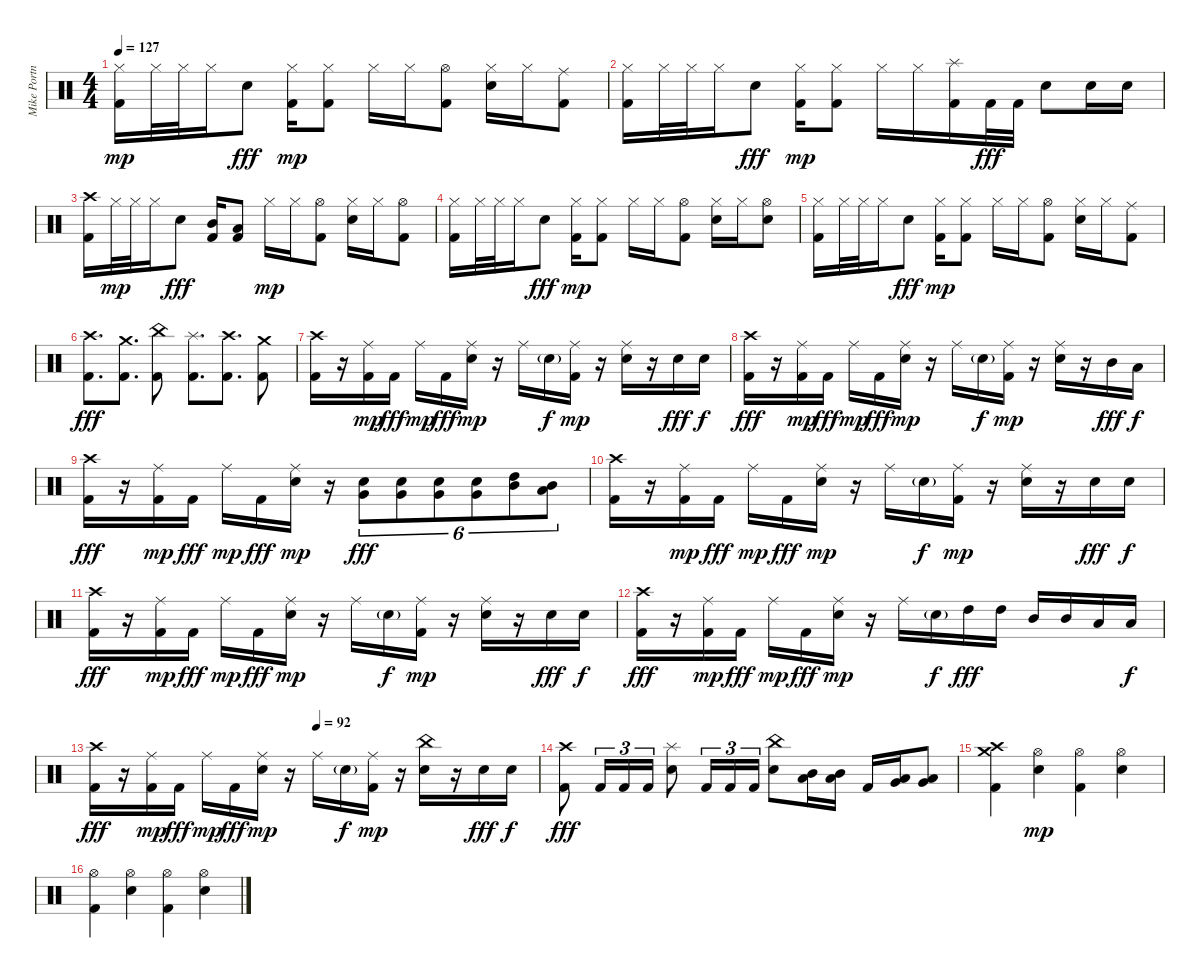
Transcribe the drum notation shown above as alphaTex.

\track ("Mike Portnoy" "Mike Portn") {instrument percussion}
\staff {score}
\articulation defaults
\ts (4 4)
\tempo 127
\clef neutral
\ks c
("Kick (hit) 2" "Hi-Hat (closed)").16{dy mp} "Hi-Hat (closed)".32 "Hi-Hat (closed)".32 "Hi-Hat (closed)".16 "Electric Snare (hit)".8{dy fff} ("Kick (hit) 2" "Hi-Hat (closed)").16{dy mp} ("Kick (hit) 2" "Hi-Hat (closed)").8 "Hi-Hat (closed)".16 "Hi-Hat (closed)".16 ("Kick (hit) 2" "Hi-Hat (open)").8 ("Electric Snare (hit)" "Hi-Hat (closed)").16 "Hi-Hat (closed)".16 ("Kick (hit) 2" "Ride (middle)").8 |
("Kick (hit) 2" "Hi-Hat (closed)").16 "Hi-Hat (closed)".32 "Hi-Hat (closed)".32 "Hi-Hat (closed)".16 "Electric Snare (hit)".8{dy fff} ("Kick (hit) 2" "Hi-Hat (closed)").16{dy mp} ("Kick (hit) 2" "Hi-Hat (closed)").8 "Hi-Hat (closed)".16 "Hi-Hat (closed)".16 ("Kick (hit) 2" "Splash (hit)").16 "Kick (hit) 2".32{dy fff} "Kick (hit) 2".32 "Electric Snare (hit)".8 "Electric Snare (hit)".16 "Electric Snare (hit)".16 |
("Kick (hit) 2" "Crash high (hit)").16 "Hi-Hat (closed)".32{dy mp} "Hi-Hat (closed)".32 "Hi-Hat (closed)".16 "Electric Snare (hit)".8{dy fff} ("Kick (hit) 2" "Mid Tom (hit)").16 ("Kick (hit) 2" "Low Tom (hit)").8 "Hi-Hat (closed)".16{dy mp} "Hi-Hat (closed)".16 ("Kick (hit) 2" "Hi-Hat (open)").8 ("Electric Snare (hit)" "Hi-Hat (closed)").16 "Hi-Hat (closed)".16 ("Kick (hit) 2" "Hi-Hat (open)").8 |
("Kick (hit) 2" "Hi-Hat (closed)").16 "Hi-Hat (closed)".32 "Hi-Hat (closed)".32 "Hi-Hat (closed)".16 "Electric Snare (hit)".8{dy fff} ("Kick (hit) 2" "Hi-Hat (closed)").16{dy mp} ("Kick (hit) 2" "Hi-Hat (closed)").8 "Hi-Hat (closed)".16 "Hi-Hat (closed)".16 ("Kick (hit) 2" "Hi-Hat (open)").8 ("Electric Snare (hit)" "Hi-Hat (closed)").16 "Hi-Hat (closed)".16 ("Electric Snare (hit)" "Hi-Hat (open)").8 |
("Kick (hit) 2" "Hi-Hat (closed)").16 "Hi-Hat (closed)".32 "Hi-Hat (closed)".32 "Hi-Hat (closed)".16 "Electric Snare (hit)".8{dy fff} ("Kick (hit) 2" "Hi-Hat (closed)").16{dy mp} ("Kick (hit) 2" "Hi-Hat (closed)").8 "Hi-Hat (closed)".16 "Hi-Hat (closed)".16 ("Kick (hit) 2" "Hi-Hat (open)").8 ("Electric Snare (hit)" "Hi-Hat (closed)").16 "Hi-Hat (closed)".16 ("Kick (hit) 2" "Ride (middle)").8 |
("Kick (hit) 2" "Crash high (hit)").8{d dy fff} ("Kick (hit) 2" "Crash medium (hit)").8{d} ("Kick (hit) 2" "China (hit)").8 ("Kick (hit) 2" "Splash (hit)").8{d} ("Kick (hit) 2" "Crash high (hit)").8{d} ("Kick (hit) 2" "Crash medium (hit)").8 |
("Kick (hit) 2" "Crash high (hit)").16 r.16 ("Kick (hit) 2" "Ride (middle)").16{dy mp} "Kick (hit) 2".16{dy fff} "Ride (middle)".16{dy mp} "Kick (hit) 2".16{dy fff} ("Electric Snare (hit)" "Ride (middle)").16{dy mp} r.16 "Ride (middle)".16 "Electric Snare (hit)"{g}.16{dy f} ("Kick (hit) 2" "Ride (middle)").16{dy mp} r.16 ("Electric Snare (hit)" "Ride (middle)").16 r.16 "Electric Snare (hit)".16{dy fff} "Electric Snare (hit)".16{dy f} |
("Kick (hit) 2" "Crash high (hit)").16{dy fff} r.16 ("Kick (hit) 2" "Ride (middle)").16{dy mp} "Kick (hit) 2".16{dy fff} "Ride (middle)".16{dy mp} "Kick (hit) 2".16{dy fff} ("Electric Snare (hit)" "Ride (middle)").16{dy mp} r.16 "Ride (middle)".16 "Electric Snare (hit)"{g}.16{dy f} ("Kick (hit) 2" "Ride (middle)").16{dy mp} r.16 ("Electric Snare (hit)" "Ride (middle)").16 r.16 "Mid Tom (hit)".16{dy fff} "Low Tom (hit)".16{dy f} |
("Kick (hit) 2" "Crash high (hit)").16{dy fff} r.16 ("Kick (hit) 2" "Ride (middle)").16{dy mp} "Kick (hit) 2".16{dy fff} "Ride (middle)".16{dy mp} "Kick (hit) 2".16{dy fff} ("Electric Snare (hit)" "Ride (middle)").16{dy mp} r.16 ("Electric Snare (hit)" "Very Low Tom (hit)").8{tu (6 4) dy fff} ("Electric Snare (hit)" "Very Low Tom (hit)").8{tu (6 4)} ("Electric Snare (hit)" "Very Low Tom (hit)").8{tu (6 4)} ("Electric Snare (hit)" "Very Low Tom (hit)").8{tu (6 4)} ("Mid Tom (hit)" "High Tom (hit)").8{tu (6 4)} ("Low Tom (hit)" "Mid Tom (hit)").8{tu (6 4)} |
("Kick (hit) 2" "Crash high (hit)").16 r.16 ("Kick (hit) 2" "Ride (middle)").16{dy mp} "Kick (hit) 2".16{dy fff} "Ride (middle)".16{dy mp} "Kick (hit) 2".16{dy fff} ("Electric Snare (hit)" "Ride (middle)").16{dy mp} r.16 "Ride (middle)".16 "Electric Snare (hit)"{g}.16{dy f} ("Kick (hit) 2" "Ride (middle)").16{dy mp} r.16 ("Electric Snare (hit)" "Ride (middle)").16 r.16 "Electric Snare (hit)".16{dy fff} "Electric Snare (hit)".16{dy f} |
("Kick (hit) 2" "Crash high (hit)").16{dy fff} r.16 ("Kick (hit) 2" "Ride (middle)").16{dy mp} "Kick (hit) 2".16{dy fff} "Ride (middle)".16{dy mp} "Kick (hit) 2".16{dy fff} ("Electric Snare (hit)" "Ride (middle)").16{dy mp} r.16 "Ride (middle)".16 "Electric Snare (hit)"{g}.16{dy f} ("Kick (hit) 2" "Ride (middle)").16{dy mp} r.16 ("Electric Snare (hit)" "Ride (middle)").16 r.16 "Electric Snare (hit)".16{dy fff} "Electric Snare (hit)".16{dy f} |
("Kick (hit) 2" "Crash high (hit)").16{dy fff} r.16 ("Kick (hit) 2" "Ride (middle)").16{dy mp} "Kick (hit) 2".16{dy fff} "Ride (middle)".16{dy mp} "Kick (hit) 2".16{dy fff} ("Electric Snare (hit)" "Ride (middle)").16{dy mp} r.16 "Ride (middle)".16 "Electric Snare (hit)"{g}.16{dy f} "High Tom (hit)".16{dy fff} "High Tom (hit)".16 "Mid Tom (hit)".16 "Mid Tom (hit)".16 "Low Tom (hit)".16 "Low Tom (hit)".16{dy f} |
\tempo (92 0.5)
("Kick (hit) 2" "Crash high (hit)").16{dy fff} r.16 ("Kick (hit) 2" "Ride (middle)").16{dy mp} "Kick (hit) 2".16{dy fff} "Ride (middle)".16{dy mp} "Kick (hit) 2".16{dy fff} ("Electric Snare (hit)" "Ride (middle)").16{dy mp} r.16 "Ride (middle)".16 "Electric Snare (hit)"{g}.16{dy f} ("Kick (hit) 2" "Ride (middle)").16{dy mp} r.16 ("Electric Snare (hit)" "China (hit)").16 r.16 "Electric Snare (hit)".16{dy fff} "Electric Snare (hit)".16{dy f} |
("Kick (hit) 2" "Crash high (hit)").8{dy fff} "Kick (hit) 2".16{tu (3 2)} "Kick (hit) 2".16{tu (3 2)} "Kick (hit) 2".16{tu (3 2)} ("Electric Snare (hit)" "Splash (hit)").8 "Kick (hit) 2".16{tu (3 2)} "Kick (hit) 2".16{tu (3 2)} "Kick (hit) 2".16{tu (3 2)} ("Electric Snare (hit)" "China (hit)").8 ("Mid Tom (hit)" "Low Tom (hit)").16 ("Mid Tom (hit)" "Low Tom (hit)").16 "Kick (hit) 2".16 ("Low Tom (hit)" "Very Low Tom (hit)").16 ("Low Tom (hit)" "Very Low Tom (hit)").8 |
("Kick (hit) 2" "Crash high (hit)" "Crash medium (hit)").4 ("Electric Snare (hit)" "Hi-Hat (open)").4{dy mp} ("Kick (hit) 2" "Hi-Hat (open)").4 ("Electric Snare (hit)" "Hi-Hat (open)").4 |
("Kick (hit) 2" "Hi-Hat (open)").4 ("Electric Snare (hit)" "Hi-Hat (open)").4 ("Kick (hit) 2" "Hi-Hat (open)").4 ("Electric Snare (hit)" "Hi-Hat (open)").4
